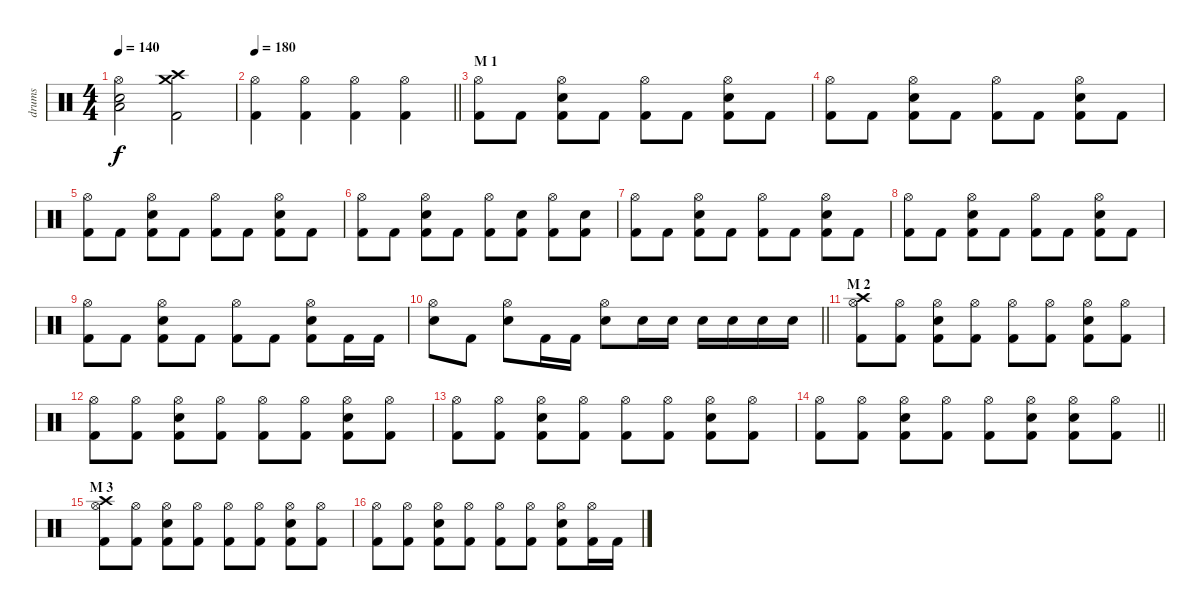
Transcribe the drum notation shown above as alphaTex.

\track ("drums" "drums") {instrument percussion}
\staff {score}
\articulation defaults
\ts (4 4)
\tempo 140
\clef neutral
\ks c
("Hi-Hat (open)" "Electric Snare (hit)" "Low Floor Tom (hit)").2{dy f} ("Crash high (hit)" "Crash medium (hit)" "Kick (hit) 2").2 |
\tempo 180
\barLineRight lightlight
("Hi-Hat (open)" "Kick (hit) 2").4 ("Hi-Hat (open)" "Kick (hit) 2").4 ("Hi-Hat (open)" "Kick (hit) 2").4 ("Hi-Hat (open)" "Kick (hit) 2").4 |
\section ("" "M 1")
("Hi-Hat (open)" "Kick (hit) 2").8 "Kick (hit) 2".8 ("Hi-Hat (open)" "Electric Snare (hit)" "Kick (hit) 2").8 "Kick (hit) 2".8 ("Hi-Hat (open)" "Kick (hit) 2").8 "Kick (hit) 2".8 ("Hi-Hat (open)" "Electric Snare (hit)" "Kick (hit) 2").8 "Kick (hit) 2".8 |
("Hi-Hat (open)" "Kick (hit) 2").8 "Kick (hit) 2".8 ("Hi-Hat (open)" "Electric Snare (hit)" "Kick (hit) 2").8 "Kick (hit) 2".8 ("Hi-Hat (open)" "Kick (hit) 2").8 "Kick (hit) 2".8 ("Hi-Hat (open)" "Electric Snare (hit)" "Kick (hit) 2").8 "Kick (hit) 2".8 |
("Hi-Hat (open)" "Kick (hit) 2").8 "Kick (hit) 2".8 ("Hi-Hat (open)" "Electric Snare (hit)" "Kick (hit) 2").8 "Kick (hit) 2".8 ("Hi-Hat (open)" "Kick (hit) 2").8 "Kick (hit) 2".8 ("Hi-Hat (open)" "Electric Snare (hit)" "Kick (hit) 2").8 "Kick (hit) 2".8 |
("Hi-Hat (open)" "Kick (hit) 2").8 "Kick (hit) 2".8 ("Hi-Hat (open)" "Electric Snare (hit)" "Kick (hit) 2").8 "Kick (hit) 2".8 ("Hi-Hat (open)" "Kick (hit) 2").8 ("Electric Snare (hit)" "Kick (hit) 2").8 ("Hi-Hat (open)" "Kick (hit) 2").8 ("Electric Snare (hit)" "Kick (hit) 2").8 |
("Hi-Hat (open)" "Kick (hit) 2").8 "Kick (hit) 2".8 ("Hi-Hat (open)" "Electric Snare (hit)" "Kick (hit) 2").8 "Kick (hit) 2".8 ("Hi-Hat (open)" "Kick (hit) 2").8 "Kick (hit) 2".8 ("Hi-Hat (open)" "Electric Snare (hit)" "Kick (hit) 2").8 "Kick (hit) 2".8 |
("Hi-Hat (open)" "Kick (hit) 2").8 "Kick (hit) 2".8 ("Hi-Hat (open)" "Electric Snare (hit)" "Kick (hit) 2").8 "Kick (hit) 2".8 ("Hi-Hat (open)" "Kick (hit) 2").8 "Kick (hit) 2".8 ("Hi-Hat (open)" "Electric Snare (hit)" "Kick (hit) 2").8 "Kick (hit) 2".8 |
("Hi-Hat (open)" "Kick (hit) 2").8 "Kick (hit) 2".8 ("Hi-Hat (open)" "Electric Snare (hit)" "Kick (hit) 2").8 "Kick (hit) 2".8 ("Hi-Hat (open)" "Kick (hit) 2").8 "Kick (hit) 2".8 ("Hi-Hat (open)" "Electric Snare (hit)" "Kick (hit) 2").8 "Kick (hit) 2".16 "Kick (hit) 2".16 |
\barLineRight lightlight
("Hi-Hat (open)" "Electric Snare (hit)").8 "Kick (hit) 2".8 ("Hi-Hat (open)" "Electric Snare (hit)").8 "Kick (hit) 2".16 "Kick (hit) 2".16 ("Hi-Hat (open)" "Electric Snare (hit)").8 "Electric Snare (hit)".16 "Electric Snare (hit)".16 "Electric Snare (hit)".16 "Electric Snare (hit)".16 "Electric Snare (hit)".16 "Electric Snare (hit)".16 |
\section ("" "M 2")
("Crash high (hit)" "Hi-Hat (open)" "Kick (hit) 2").8 ("Hi-Hat (open)" "Kick (hit) 2").8 ("Hi-Hat (open)" "Electric Snare (hit)" "Kick (hit) 2").8 ("Hi-Hat (open)" "Kick (hit) 2").8 ("Hi-Hat (open)" "Kick (hit) 2").8 ("Hi-Hat (open)" "Kick (hit) 2").8 ("Hi-Hat (open)" "Electric Snare (hit)" "Kick (hit) 2").8 ("Hi-Hat (open)" "Kick (hit) 2").8 |
("Hi-Hat (open)" "Kick (hit) 2").8 ("Hi-Hat (open)" "Kick (hit) 2").8 ("Hi-Hat (open)" "Electric Snare (hit)" "Kick (hit) 2").8 ("Hi-Hat (open)" "Kick (hit) 2").8 ("Hi-Hat (open)" "Kick (hit) 2").8 ("Hi-Hat (open)" "Kick (hit) 2").8 ("Hi-Hat (open)" "Electric Snare (hit)" "Kick (hit) 2").8 ("Hi-Hat (open)" "Kick (hit) 2").8 |
("Hi-Hat (open)" "Kick (hit) 2").8 ("Hi-Hat (open)" "Kick (hit) 2").8 ("Hi-Hat (open)" "Electric Snare (hit)" "Kick (hit) 2").8 ("Hi-Hat (open)" "Kick (hit) 2").8 ("Hi-Hat (open)" "Kick (hit) 2").8 ("Hi-Hat (open)" "Kick (hit) 2").8 ("Hi-Hat (open)" "Electric Snare (hit)" "Kick (hit) 2").8 ("Hi-Hat (open)" "Kick (hit) 2").8 |
\barLineRight lightlight
("Hi-Hat (open)" "Kick (hit) 2").8 ("Hi-Hat (open)" "Kick (hit) 2").8 ("Hi-Hat (open)" "Electric Snare (hit)" "Kick (hit) 2").8 ("Hi-Hat (open)" "Kick (hit) 2").8 ("Hi-Hat (open)" "Kick (hit) 2").8 ("Hi-Hat (open)" "Electric Snare (hit)" "Kick (hit) 2").8 ("Hi-Hat (open)" "Electric Snare (hit)" "Kick (hit) 2").8 ("Hi-Hat (open)" "Kick (hit) 2").8 |
\section ("" "M 3")
("Crash high (hit)" "Hi-Hat (open)" "Kick (hit) 2").8 ("Hi-Hat (open)" "Kick (hit) 2").8 ("Hi-Hat (open)" "Electric Snare (hit)" "Kick (hit) 2").8 ("Hi-Hat (open)" "Kick (hit) 2").8 ("Hi-Hat (open)" "Kick (hit) 2").8 ("Hi-Hat (open)" "Kick (hit) 2").8 ("Hi-Hat (open)" "Electric Snare (hit)" "Kick (hit) 2").8 ("Hi-Hat (open)" "Kick (hit) 2").8 |
("Hi-Hat (open)" "Kick (hit) 2").8 ("Hi-Hat (open)" "Kick (hit) 2").8 ("Hi-Hat (open)" "Electric Snare (hit)" "Kick (hit) 2").8 ("Hi-Hat (open)" "Kick (hit) 2").8 ("Hi-Hat (open)" "Kick (hit) 2").8 ("Hi-Hat (open)" "Kick (hit) 2").8 ("Hi-Hat (open)" "Electric Snare (hit)" "Kick (hit) 2").8 ("Hi-Hat (open)" "Kick (hit) 2").16 "Kick (hit) 2".16
